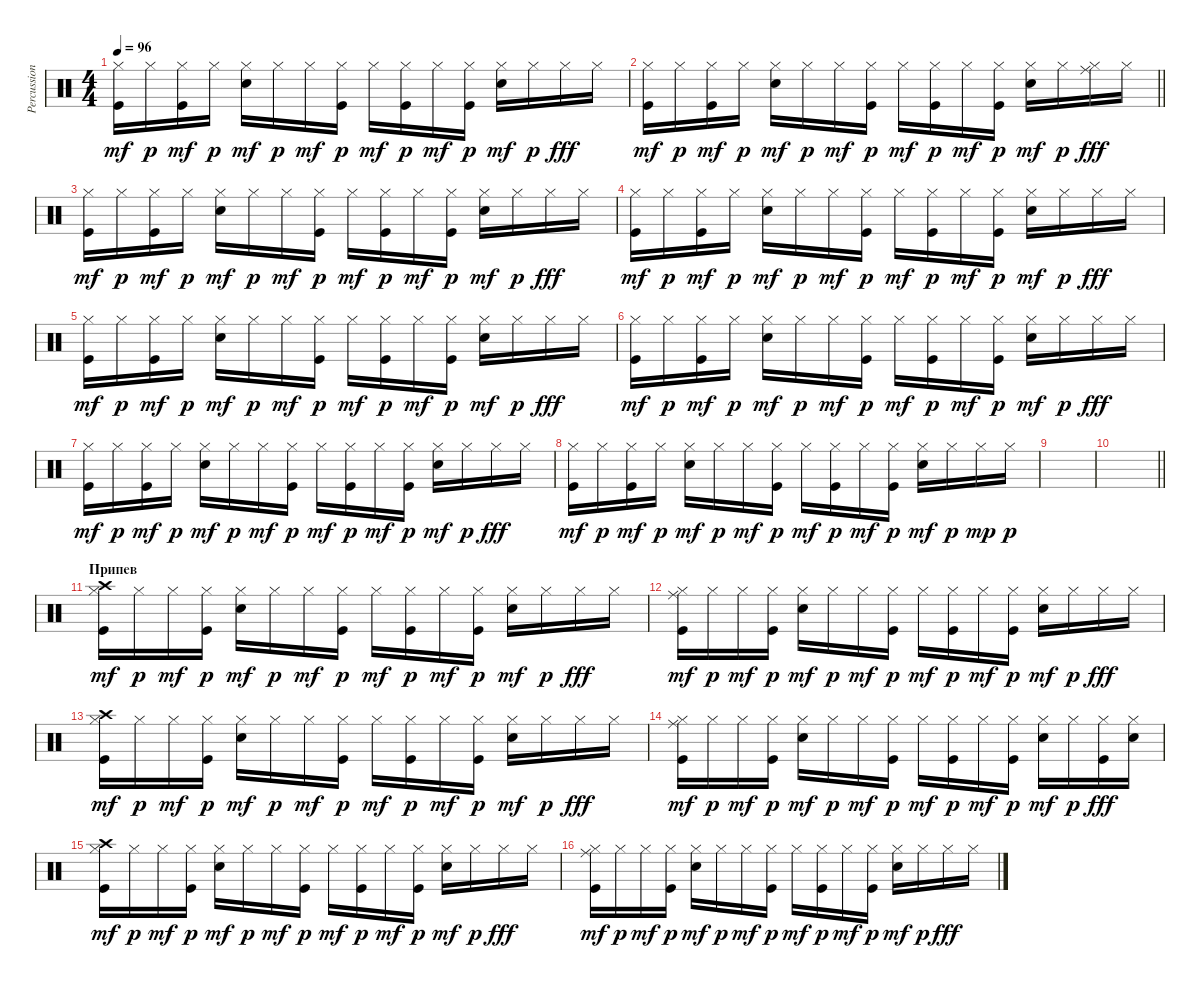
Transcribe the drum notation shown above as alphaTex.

\track ("Percussion" "Percussion") {instrument percussion}
\staff {score}
\articulation defaults
\ts (4 4)
\tempo 96
\clef neutral
\ks c
("Hi-Hat (closed)" "Kick (hit)").16{dy mf} "Hi-Hat (closed)".16{dy p} ("Hi-Hat (closed)" "Kick (hit)").16{dy mf} "Hi-Hat (closed)".16{dy p} ("Hi-Hat (closed)" "Snare (hit) 2").16{dy mf} "Hi-Hat (closed)".16{dy p} "Hi-Hat (closed)".16{dy mf} ("Hi-Hat (closed)" "Kick (hit)").16{dy p} "Hi-Hat (closed)".16{dy mf} ("Hi-Hat (closed)" "Kick (hit)").16{dy p} "Hi-Hat (closed)".16{dy mf} ("Hi-Hat (closed)" "Kick (hit)").16{dy p} ("Hi-Hat (closed)" "Snare (hit) 2").16{dy mf} "Hi-Hat (closed)".16{dy p} "Hi-Hat (closed)".16{dy fff} "Hi-Hat (closed)".16 |
\barLineRight lightlight
("Hi-Hat (closed)" "Kick (hit)").16{dy mf} "Hi-Hat (closed)".16{dy p} ("Hi-Hat (closed)" "Kick (hit)").16{dy mf} "Hi-Hat (closed)".16{dy p} ("Hi-Hat (closed)" "Snare (hit) 2").16{dy mf} "Hi-Hat (closed)".16{dy p} "Hi-Hat (closed)".16{dy mf} ("Hi-Hat (closed)" "Kick (hit)").16{dy p} "Hi-Hat (closed)".16{dy mf} ("Hi-Hat (closed)" "Kick (hit)").16{dy p} "Hi-Hat (closed)".16{dy mf} ("Hi-Hat (closed)" "Kick (hit)").16{dy p} ("Hi-Hat (closed)" "Snare (hit) 2").16{dy mf} "Hi-Hat (closed)".16{dy p} ("Hi-Hat (closed)" "Ride (middle)").16{dy fff} "Hi-Hat (closed)".16 |
("Hi-Hat (closed)" "Kick (hit)").16{dy mf} "Hi-Hat (closed)".16{dy p} ("Hi-Hat (closed)" "Kick (hit)").16{dy mf} "Hi-Hat (closed)".16{dy p} ("Hi-Hat (closed)" "Snare (hit) 2").16{dy mf} "Hi-Hat (closed)".16{dy p} "Hi-Hat (closed)".16{dy mf} ("Hi-Hat (closed)" "Kick (hit)").16{dy p} "Hi-Hat (closed)".16{dy mf} ("Hi-Hat (closed)" "Kick (hit)").16{dy p} "Hi-Hat (closed)".16{dy mf} ("Hi-Hat (closed)" "Kick (hit)").16{dy p} ("Hi-Hat (closed)" "Snare (hit) 2").16{dy mf} "Hi-Hat (closed)".16{dy p} "Hi-Hat (closed)".16{dy fff} "Hi-Hat (closed)".16 |
("Hi-Hat (closed)" "Kick (hit)").16{dy mf} "Hi-Hat (closed)".16{dy p} ("Hi-Hat (closed)" "Kick (hit)").16{dy mf} "Hi-Hat (closed)".16{dy p} ("Hi-Hat (closed)" "Snare (hit) 2").16{dy mf} "Hi-Hat (closed)".16{dy p} "Hi-Hat (closed)".16{dy mf} ("Hi-Hat (closed)" "Kick (hit)").16{dy p} "Hi-Hat (closed)".16{dy mf} ("Hi-Hat (closed)" "Kick (hit)").16{dy p} "Hi-Hat (closed)".16{dy mf} ("Hi-Hat (closed)" "Kick (hit)").16{dy p} ("Hi-Hat (closed)" "Snare (hit) 2").16{dy mf} "Hi-Hat (closed)".16{dy p} "Hi-Hat (closed)".16{dy fff} "Hi-Hat (closed)".16 |
("Hi-Hat (closed)" "Kick (hit)").16{dy mf} "Hi-Hat (closed)".16{dy p} ("Hi-Hat (closed)" "Kick (hit)").16{dy mf} "Hi-Hat (closed)".16{dy p} ("Hi-Hat (closed)" "Snare (hit) 2").16{dy mf} "Hi-Hat (closed)".16{dy p} "Hi-Hat (closed)".16{dy mf} ("Hi-Hat (closed)" "Kick (hit)").16{dy p} "Hi-Hat (closed)".16{dy mf} ("Hi-Hat (closed)" "Kick (hit)").16{dy p} "Hi-Hat (closed)".16{dy mf} ("Hi-Hat (closed)" "Kick (hit)").16{dy p} ("Hi-Hat (closed)" "Snare (hit) 2").16{dy mf} "Hi-Hat (closed)".16{dy p} "Hi-Hat (closed)".16{dy fff} "Hi-Hat (closed)".16 |
("Hi-Hat (closed)" "Kick (hit)").16{dy mf} "Hi-Hat (closed)".16{dy p} ("Hi-Hat (closed)" "Kick (hit)").16{dy mf} "Hi-Hat (closed)".16{dy p} ("Hi-Hat (closed)" "Snare (hit) 2").16{dy mf} "Hi-Hat (closed)".16{dy p} "Hi-Hat (closed)".16{dy mf} ("Hi-Hat (closed)" "Kick (hit)").16{dy p} "Hi-Hat (closed)".16{dy mf} ("Hi-Hat (closed)" "Kick (hit)").16{dy p} "Hi-Hat (closed)".16{dy mf} ("Hi-Hat (closed)" "Kick (hit)").16{dy p} ("Hi-Hat (closed)" "Snare (hit) 2").16{dy mf} "Hi-Hat (closed)".16{dy p} "Hi-Hat (closed)".16{dy fff} "Hi-Hat (closed)".16 |
("Hi-Hat (closed)" "Kick (hit)").16{dy mf} "Hi-Hat (closed)".16{dy p} ("Hi-Hat (closed)" "Kick (hit)").16{dy mf} "Hi-Hat (closed)".16{dy p} ("Hi-Hat (closed)" "Snare (hit) 2").16{dy mf} "Hi-Hat (closed)".16{dy p} "Hi-Hat (closed)".16{dy mf} ("Hi-Hat (closed)" "Kick (hit)").16{dy p} "Hi-Hat (closed)".16{dy mf} ("Hi-Hat (closed)" "Kick (hit)").16{dy p} "Hi-Hat (closed)".16{dy mf} ("Hi-Hat (closed)" "Kick (hit)").16{dy p} ("Hi-Hat (closed)" "Snare (hit) 2").16{dy mf} "Hi-Hat (closed)".16{dy p} "Hi-Hat (closed)".16{dy fff} "Hi-Hat (closed)".16 |
("Hi-Hat (closed)" "Kick (hit)").16{dy mf} "Hi-Hat (closed)".16{dy p} ("Hi-Hat (closed)" "Kick (hit)").16{dy mf} "Hi-Hat (closed)".16{dy p} ("Hi-Hat (closed)" "Snare (hit) 2").16{dy mf} "Hi-Hat (closed)".16{dy p} "Hi-Hat (closed)".16{dy mf} ("Hi-Hat (closed)" "Kick (hit)").16{dy p} "Hi-Hat (closed)".16{dy mf} ("Hi-Hat (closed)" "Kick (hit)").16{dy p} "Hi-Hat (closed)".16{dy mf} ("Hi-Hat (closed)" "Kick (hit)").16{dy p} ("Hi-Hat (closed)" "Snare (hit) 2").16{dy mf} "Hi-Hat (closed)".16{dy p} "Hi-Hat (closed)".16{dy mp} "Hi-Hat (closed)".16{dy p} |
|
\barLineRight lightlight
|
\section ("" "Припев")
("Hi-Hat (closed)" "Crash high (hit)" "Kick (hit)").16{dy mf} "Hi-Hat (closed)".16{dy p} "Hi-Hat (closed)".16{dy mf} ("Hi-Hat (closed)" "Kick (hit)").16{dy p} ("Hi-Hat (closed)" "Snare (hit) 2").16{dy mf} "Hi-Hat (closed)".16{dy p} "Hi-Hat (closed)".16{dy mf} ("Hi-Hat (closed)" "Kick (hit)").16{dy p} "Hi-Hat (closed)".16{dy mf} ("Hi-Hat (closed)" "Kick (hit)").16{dy p} "Hi-Hat (closed)".16{dy mf} ("Hi-Hat (closed)" "Kick (hit)").16{dy p} ("Hi-Hat (closed)" "Snare (hit) 2").16{dy mf} "Hi-Hat (closed)".16{dy p} "Hi-Hat (closed)".16{dy fff} "Hi-Hat (closed)".16 |
("Hi-Hat (closed)" "Ride (middle)" "Kick (hit)").16{dy mf} "Hi-Hat (closed)".16{dy p} "Hi-Hat (closed)".16{dy mf} ("Hi-Hat (closed)" "Kick (hit)").16{dy p} ("Hi-Hat (closed)" "Snare (hit) 2").16{dy mf} "Hi-Hat (closed)".16{dy p} "Hi-Hat (closed)".16{dy mf} ("Hi-Hat (closed)" "Kick (hit)").16{dy p} "Hi-Hat (closed)".16{dy mf} ("Hi-Hat (closed)" "Kick (hit)").16{dy p} "Hi-Hat (closed)".16{dy mf} ("Hi-Hat (closed)" "Kick (hit)").16{dy p} ("Hi-Hat (closed)" "Snare (hit) 2").16{dy mf} "Hi-Hat (closed)".16{dy p} "Hi-Hat (closed)".16{dy fff} "Hi-Hat (closed)".16 |
("Hi-Hat (closed)" "Crash high (hit)" "Kick (hit)").16{dy mf} "Hi-Hat (closed)".16{dy p} "Hi-Hat (closed)".16{dy mf} ("Hi-Hat (closed)" "Kick (hit)").16{dy p} ("Hi-Hat (closed)" "Snare (hit) 2").16{dy mf} "Hi-Hat (closed)".16{dy p} "Hi-Hat (closed)".16{dy mf} ("Hi-Hat (closed)" "Kick (hit)").16{dy p} "Hi-Hat (closed)".16{dy mf} ("Hi-Hat (closed)" "Kick (hit)").16{dy p} "Hi-Hat (closed)".16{dy mf} ("Hi-Hat (closed)" "Kick (hit)").16{dy p} ("Hi-Hat (closed)" "Snare (hit) 2").16{dy mf} "Hi-Hat (closed)".16{dy p} "Hi-Hat (closed)".16{dy fff} "Hi-Hat (closed)".16 |
("Hi-Hat (closed)" "Ride (middle)" "Kick (hit)").16{dy mf} "Hi-Hat (closed)".16{dy p} "Hi-Hat (closed)".16{dy mf} ("Hi-Hat (closed)" "Kick (hit)").16{dy p} ("Hi-Hat (closed)" "Snare (hit) 2").16{dy mf} "Hi-Hat (closed)".16{dy p} "Hi-Hat (closed)".16{dy mf} ("Hi-Hat (closed)" "Kick (hit)").16{dy p} "Hi-Hat (closed)".16{dy mf} ("Hi-Hat (closed)" "Kick (hit)").16{dy p} "Hi-Hat (closed)".16{dy mf} ("Hi-Hat (closed)" "Kick (hit)").16{dy p} ("Hi-Hat (closed)" "Snare (hit) 2").16{dy mf} "Hi-Hat (closed)".16{dy p} ("Hi-Hat (closed)" "Kick (hit)").16{dy fff} ("Hi-Hat (closed)" "Snare (hit) 2").16 |
("Hi-Hat (closed)" "Crash high (hit)" "Kick (hit)").16{dy mf} "Hi-Hat (closed)".16{dy p} "Hi-Hat (closed)".16{dy mf} ("Hi-Hat (closed)" "Kick (hit)").16{dy p} ("Hi-Hat (closed)" "Snare (hit) 2").16{dy mf} "Hi-Hat (closed)".16{dy p} "Hi-Hat (closed)".16{dy mf} ("Hi-Hat (closed)" "Kick (hit)").16{dy p} "Hi-Hat (closed)".16{dy mf} ("Hi-Hat (closed)" "Kick (hit)").16{dy p} "Hi-Hat (closed)".16{dy mf} ("Hi-Hat (closed)" "Kick (hit)").16{dy p} ("Hi-Hat (closed)" "Snare (hit) 2").16{dy mf} "Hi-Hat (closed)".16{dy p} "Hi-Hat (closed)".16{dy fff} "Hi-Hat (closed)".16 |
("Hi-Hat (closed)" "Ride (middle)" "Kick (hit)").16{dy mf} "Hi-Hat (closed)".16{dy p} "Hi-Hat (closed)".16{dy mf} ("Hi-Hat (closed)" "Kick (hit)").16{dy p} ("Hi-Hat (closed)" "Snare (hit) 2").16{dy mf} "Hi-Hat (closed)".16{dy p} "Hi-Hat (closed)".16{dy mf} ("Hi-Hat (closed)" "Kick (hit)").16{dy p} "Hi-Hat (closed)".16{dy mf} ("Hi-Hat (closed)" "Kick (hit)").16{dy p} "Hi-Hat (closed)".16{dy mf} ("Hi-Hat (closed)" "Kick (hit)").16{dy p} ("Hi-Hat (closed)" "Snare (hit) 2").16{dy mf} "Hi-Hat (closed)".16{dy p} "Hi-Hat (closed)".16{dy fff} "Hi-Hat (closed)".16
